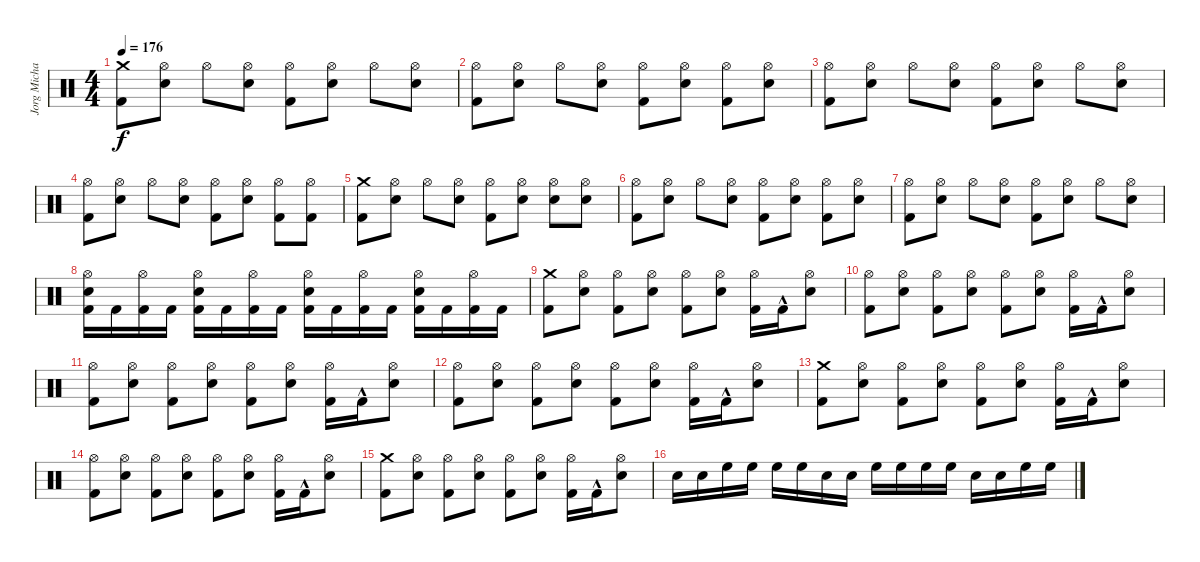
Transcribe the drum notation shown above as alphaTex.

\track ("Jorg Michael" "Jorg Micha") {instrument percussion}
\staff {score}
\articulation defaults
\ts (4 4)
\tempo 176
\clef neutral
\ks c
("Kick (hit) 2" "Crash medium (hit)").8{dy f} ("Snare (hit) 2" "Hi-Hat (open)").8 "Hi-Hat (open)".8 ("Snare (hit) 2" "Hi-Hat (open)").8 ("Kick (hit) 2" "Hi-Hat (open)").8 ("Snare (hit) 2" "Hi-Hat (open)").8 "Hi-Hat (open)".8 ("Snare (hit) 2" "Hi-Hat (open)").8 |
("Hi-Hat (open)" "Kick (hit) 2").8 ("Snare (hit) 2" "Hi-Hat (open)").8 "Hi-Hat (open)".8 ("Snare (hit) 2" "Hi-Hat (open)").8 ("Kick (hit) 2" "Hi-Hat (open)").8 ("Snare (hit) 2" "Hi-Hat (open)").8 ("Kick (hit) 2" "Hi-Hat (open)").8 ("Snare (hit) 2" "Hi-Hat (open)").8 |
("Hi-Hat (open)" "Kick (hit) 2").8 ("Snare (hit) 2" "Hi-Hat (open)").8 "Hi-Hat (open)".8 ("Snare (hit) 2" "Hi-Hat (open)").8 ("Kick (hit) 2" "Hi-Hat (open)").8 ("Snare (hit) 2" "Hi-Hat (open)").8 "Hi-Hat (open)".8 ("Snare (hit) 2" "Hi-Hat (open)").8 |
("Hi-Hat (open)" "Kick (hit) 2").8 ("Snare (hit) 2" "Hi-Hat (open)").8 "Hi-Hat (open)".8 ("Snare (hit) 2" "Hi-Hat (open)").8 ("Kick (hit) 2" "Hi-Hat (open)").8 ("Snare (hit) 2" "Hi-Hat (open)").8 ("Kick (hit) 2" "Hi-Hat (open)").8 ("Kick (hit) 2" "Hi-Hat (open)").8 |
("Kick (hit) 2" "Crash medium (hit)").8 ("Snare (hit) 2" "Hi-Hat (open)").8 "Hi-Hat (open)".8 ("Snare (hit) 2" "Hi-Hat (open)").8 ("Kick (hit) 2" "Hi-Hat (open)").8 ("Snare (hit) 2" "Hi-Hat (open)").8 ("Snare (hit) 2" "Hi-Hat (open)").8 ("Snare (hit) 2" "Hi-Hat (open)").8 |
("Hi-Hat (open)" "Kick (hit) 2").8 ("Snare (hit) 2" "Hi-Hat (open)").8 "Hi-Hat (open)".8 ("Snare (hit) 2" "Hi-Hat (open)").8 ("Kick (hit) 2" "Hi-Hat (open)").8 ("Snare (hit) 2" "Hi-Hat (open)").8 ("Kick (hit) 2" "Hi-Hat (open)").8 ("Snare (hit) 2" "Hi-Hat (open)").8 |
("Hi-Hat (open)" "Kick (hit) 2").8 ("Snare (hit) 2" "Hi-Hat (open)").8 "Hi-Hat (open)".8 ("Snare (hit) 2" "Hi-Hat (open)").8 ("Kick (hit) 2" "Hi-Hat (open)").8 ("Snare (hit) 2" "Hi-Hat (open)").8 "Hi-Hat (open)".8 ("Snare (hit) 2" "Hi-Hat (open)").8 |
("Hi-Hat (open)" "Snare (hit) 2" "Kick (hit) 2").16 "Kick (hit) 2".16 ("Hi-Hat (open)" "Kick (hit) 2").16 "Kick (hit) 2".16 ("Hi-Hat (open)" "Snare (hit) 2" "Kick (hit) 2").16 "Kick (hit) 2".16 ("Hi-Hat (open)" "Kick (hit) 2").16 "Kick (hit) 2".16 ("Hi-Hat (open)" "Snare (hit) 2" "Kick (hit) 2").16 "Kick (hit) 2".16 ("Hi-Hat (open)" "Kick (hit) 2").16 "Kick (hit) 2".16 ("Hi-Hat (open)" "Snare (hit) 2" "Kick (hit) 2").16 "Kick (hit) 2".16 ("Hi-Hat (open)" "Kick (hit) 2").16 "Kick (hit) 2".16 |
("Kick (hit) 2" "Crash medium (hit)").8 ("Snare (hit) 2" "Hi-Hat (open)").8 ("Kick (hit) 2" "Hi-Hat (open)").8 ("Snare (hit) 2" "Hi-Hat (open)").8 ("Kick (hit) 2" "Hi-Hat (open)").8 ("Snare (hit) 2" "Hi-Hat (open)").8 ("Kick (hit) 2" "Hi-Hat (open)").16 "Kick (hit) 2"{hac}.16 ("Snare (hit) 2" "Hi-Hat (open)").8 |
("Hi-Hat (open)" "Kick (hit) 2").8 ("Snare (hit) 2" "Hi-Hat (open)").8 ("Kick (hit) 2" "Hi-Hat (open)").8 ("Snare (hit) 2" "Hi-Hat (open)").8 ("Kick (hit) 2" "Hi-Hat (open)").8 ("Snare (hit) 2" "Hi-Hat (open)").8 ("Kick (hit) 2" "Hi-Hat (open)").16 "Kick (hit) 2"{hac}.16 ("Snare (hit) 2" "Hi-Hat (open)").8 |
("Hi-Hat (open)" "Kick (hit) 2").8 ("Snare (hit) 2" "Hi-Hat (open)").8 ("Kick (hit) 2" "Hi-Hat (open)").8 ("Snare (hit) 2" "Hi-Hat (open)").8 ("Kick (hit) 2" "Hi-Hat (open)").8 ("Snare (hit) 2" "Hi-Hat (open)").8 ("Kick (hit) 2" "Hi-Hat (open)").16 "Kick (hit) 2"{hac}.16 ("Snare (hit) 2" "Hi-Hat (open)").8 |
("Hi-Hat (open)" "Kick (hit) 2").8 ("Snare (hit) 2" "Hi-Hat (open)").8 ("Kick (hit) 2" "Hi-Hat (open)").8 ("Snare (hit) 2" "Hi-Hat (open)").8 ("Kick (hit) 2" "Hi-Hat (open)").8 ("Snare (hit) 2" "Hi-Hat (open)").8 ("Kick (hit) 2" "Hi-Hat (open)").16 "Kick (hit) 2"{hac}.16 ("Snare (hit) 2" "Hi-Hat (open)").8 |
("Kick (hit) 2" "Crash medium (hit)").8 ("Snare (hit) 2" "Hi-Hat (open)").8 ("Kick (hit) 2" "Hi-Hat (open)").8 ("Snare (hit) 2" "Hi-Hat (open)").8 ("Kick (hit) 2" "Hi-Hat (open)").8 ("Snare (hit) 2" "Hi-Hat (open)").8 ("Kick (hit) 2" "Hi-Hat (open)").16 "Kick (hit) 2"{hac}.16 ("Snare (hit) 2" "Hi-Hat (open)").8 |
("Hi-Hat (open)" "Kick (hit) 2").8 ("Snare (hit) 2" "Hi-Hat (open)").8 ("Kick (hit) 2" "Hi-Hat (open)").8 ("Snare (hit) 2" "Hi-Hat (open)").8 ("Kick (hit) 2" "Hi-Hat (open)").8 ("Snare (hit) 2" "Hi-Hat (open)").8 ("Kick (hit) 2" "Hi-Hat (open)").16 "Kick (hit) 2"{hac}.16 ("Snare (hit) 2" "Hi-Hat (open)").8 |
("Kick (hit) 2" "Crash medium (hit)").8 ("Snare (hit) 2" "Hi-Hat (open)").8 ("Kick (hit) 2" "Hi-Hat (open)").8 ("Snare (hit) 2" "Hi-Hat (open)").8 ("Kick (hit) 2" "Hi-Hat (open)").8 ("Snare (hit) 2" "Hi-Hat (open)").8 ("Kick (hit) 2" "Hi-Hat (open)").16 "Kick (hit) 2"{hac}.16 ("Snare (hit) 2" "Hi-Hat (open)").8 |
"Snare (hit) 2".16 "Snare (hit) 2".16 "High Floor Tom (hit)".16 "High Floor Tom (hit)".16 "High Floor Tom (hit)".16 "High Floor Tom (hit)".16 "Snare (hit) 2".16 "Snare (hit) 2".16 "High Floor Tom (hit)".16 "High Floor Tom (hit)".16 "High Floor Tom (hit)".16 "High Floor Tom (hit)".16 "Snare (hit) 2".16 "Snare (hit) 2".16 "High Floor Tom (hit)".16 "High Floor Tom (hit)".16
